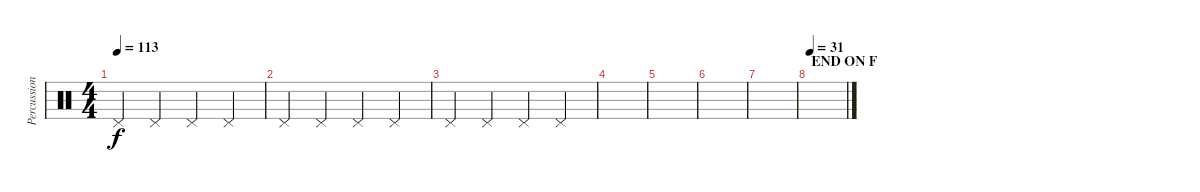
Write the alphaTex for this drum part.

\track ("Percussion" "Percussion") {instrument percussion}
\staff {score}
\articulation defaults
\ts (4 4)
\tempo 113
\clef neutral
\ks c "Pedal Hi-Hat (hit)".4{dy f} "Pedal Hi-Hat (hit)".4 "Pedal Hi-Hat (hit)".4 "Pedal Hi-Hat (hit)".4
|
"Pedal Hi-Hat (hit)".4 "Pedal Hi-Hat (hit)".4 "Pedal Hi-Hat (hit)".4 "Pedal Hi-Hat (hit)".4 |
"Pedal Hi-Hat (hit)".4 "Pedal Hi-Hat (hit)".4 "Pedal Hi-Hat (hit)".4 "Pedal Hi-Hat (hit)".4 |
|
|
|
|
\section ("" "END ON F")
\tempo 31
